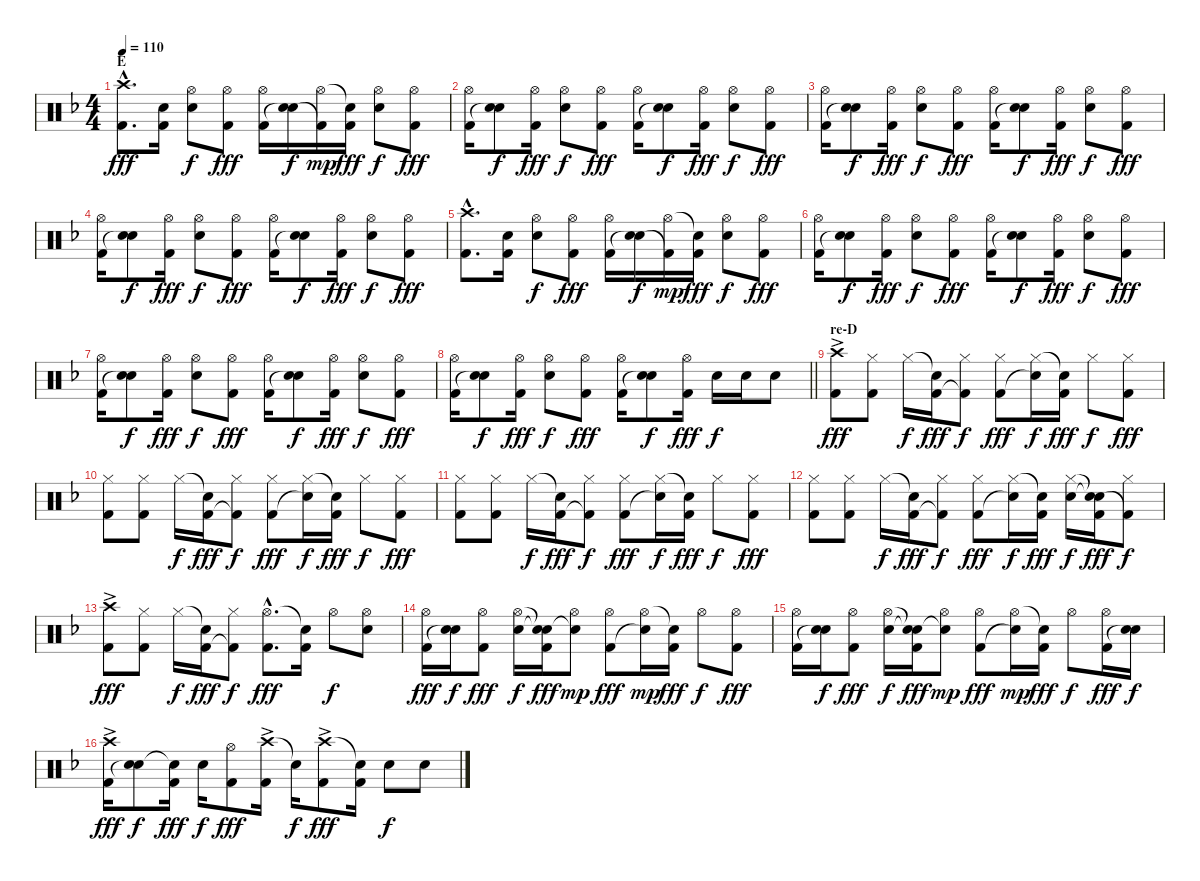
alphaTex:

\track "" {instrument percussion}
\staff {score}
\articulation defaults
\ts (4 4)
\section ("" "E")
\tempo 110
\clef neutral
\ks dminor
("Crash high (hit)"{hac} "Kick (hit) 2"{hac}).8{d dy fff} ("Electric Snare (hit)" "Kick (hit) 2").16 ("Hi-Hat (open)" "Electric Snare (hit)").8{dy f} ("Hi-Hat (open)" "Kick (hit) 2").8{dy fff} ("Hi-Hat (open)" "Kick (hit) 2").16 ("Electric Snare (hit)" "Snare (hit)"{t}).16{dy f} ("Hi-Hat (open)" "Kick (hit) 2"{t}).16{dy mp} ("Snare (hit)"{t} "Kick (hit) 2").16{dy fff} ("Hi-Hat (open)" "Electric Snare (hit)").8{dy f} ("Hi-Hat (open)" "Kick (hit) 2").8{dy fff} |
("Hi-Hat (open)" "Kick (hit) 2").16 ("Electric Snare (hit)" "Snare (hit)"{t}).8{dy f} ("Hi-Hat (open)" "Kick (hit) 2").16{dy fff} ("Hi-Hat (open)" "Electric Snare (hit)").8{dy f} ("Hi-Hat (open)" "Kick (hit) 2").8{dy fff} ("Hi-Hat (open)" "Kick (hit) 2").16 ("Electric Snare (hit)" "Snare (hit)"{t}).8{dy f} ("Hi-Hat (open)" "Kick (hit) 2").16{dy fff} ("Hi-Hat (open)" "Electric Snare (hit)").8{dy f} ("Hi-Hat (open)" "Kick (hit) 2").8{dy fff} |
("Hi-Hat (open)" "Kick (hit) 2").16 ("Electric Snare (hit)" "Snare (hit)"{t}).8{dy f} ("Hi-Hat (open)" "Kick (hit) 2").16{dy fff} ("Hi-Hat (open)" "Electric Snare (hit)").8{dy f} ("Hi-Hat (open)" "Kick (hit) 2").8{dy fff} ("Hi-Hat (open)" "Kick (hit) 2").16 ("Electric Snare (hit)" "Snare (hit)"{t}).8{dy f} ("Hi-Hat (open)" "Kick (hit) 2").16{dy fff} ("Hi-Hat (open)" "Electric Snare (hit)").8{dy f} ("Hi-Hat (open)" "Kick (hit) 2").8{dy fff} |
("Hi-Hat (open)" "Kick (hit) 2").16 ("Electric Snare (hit)" "Snare (hit)"{t}).8{dy f} ("Hi-Hat (open)" "Kick (hit) 2").16{dy fff} ("Hi-Hat (open)" "Electric Snare (hit)").8{dy f} ("Hi-Hat (open)" "Kick (hit) 2").8{dy fff} ("Hi-Hat (open)" "Kick (hit) 2").16 ("Electric Snare (hit)" "Snare (hit)"{t}).8{dy f} ("Hi-Hat (open)" "Kick (hit) 2").16{dy fff} ("Hi-Hat (open)" "Electric Snare (hit)").8{dy f} ("Hi-Hat (open)" "Kick (hit) 2").8{dy fff} |
("Crash high (hit)"{hac} "Kick (hit) 2"{hac}).8{d} ("Electric Snare (hit)" "Kick (hit) 2").16 ("Hi-Hat (open)" "Electric Snare (hit)").8{dy f} ("Hi-Hat (open)" "Kick (hit) 2").8{dy fff} ("Hi-Hat (open)" "Kick (hit) 2").16 ("Electric Snare (hit)" "Snare (hit)"{t}).16{dy f} ("Hi-Hat (open)" "Kick (hit) 2"{t}).16{dy mp} ("Snare (hit)"{t} "Kick (hit) 2").16{dy fff} ("Hi-Hat (open)" "Electric Snare (hit)").8{dy f} ("Hi-Hat (open)" "Kick (hit) 2").8{dy fff} |
("Hi-Hat (open)" "Kick (hit) 2").16 ("Electric Snare (hit)" "Snare (hit)"{t}).8{dy f} ("Hi-Hat (open)" "Kick (hit) 2").16{dy fff} ("Hi-Hat (open)" "Electric Snare (hit)").8{dy f} ("Hi-Hat (open)" "Kick (hit) 2").8{dy fff} ("Hi-Hat (open)" "Kick (hit) 2").16 ("Electric Snare (hit)" "Snare (hit)"{t}).8{dy f} ("Hi-Hat (open)" "Kick (hit) 2").16{dy fff} ("Hi-Hat (open)" "Electric Snare (hit)").8{dy f} ("Hi-Hat (open)" "Kick (hit) 2").8{dy fff} |
("Hi-Hat (open)" "Kick (hit) 2").16 ("Electric Snare (hit)" "Snare (hit)"{t}).8{dy f} ("Hi-Hat (open)" "Kick (hit) 2").16{dy fff} ("Hi-Hat (open)" "Electric Snare (hit)").8{dy f} ("Hi-Hat (open)" "Kick (hit) 2").8{dy fff} ("Hi-Hat (open)" "Kick (hit) 2").16 ("Electric Snare (hit)" "Snare (hit)"{t}).8{dy f} ("Hi-Hat (open)" "Kick (hit) 2").16{dy fff} ("Hi-Hat (open)" "Electric Snare (hit)").8{dy f} ("Hi-Hat (open)" "Kick (hit) 2").8{dy fff} |
\barLineRight lightlight
("Hi-Hat (open)" "Kick (hit) 2").16 ("Electric Snare (hit)" "Snare (hit)"{t}).8{dy f} ("Hi-Hat (open)" "Kick (hit) 2").16{dy fff} ("Hi-Hat (open)" "Electric Snare (hit)").8{dy f} ("Hi-Hat (open)" "Kick (hit) 2").8{dy fff} ("Hi-Hat (open)" "Kick (hit) 2").16 ("Electric Snare (hit)" "Snare (hit)"{t}).8{dy f} ("Hi-Hat (open)" "Kick (hit) 2").16{dy fff} "Electric Snare (hit)".16{dy f} "Electric Snare (hit)".16 "Electric Snare (hit)".8 |
\section ("" "re-D")
("Crash high (hit)"{ac} "Kick (hit) 2").8{dy fff} ("Hi-Hat (closed)" "Kick (hit) 2").8 "Hi-Hat (closed)".16{dy f} ("Snare (hit)"{t} "Kick (hit) 2").16{dy fff} ("Hi-Hat (closed)" "Kick (hit) 2"{t}).8{dy f} ("Hi-Hat (closed)" "Kick (hit) 2").8{dy fff} ("Hi-Hat (closed)" "Snare (hit)"{t}).16{dy f} ("Snare (hit)"{t} "Kick (hit) 2").16{dy fff} "Hi-Hat (closed)".8{dy f} ("Hi-Hat (closed)" "Kick (hit) 2").8{dy fff} |
("Hi-Hat (closed)" "Kick (hit) 2").8 ("Hi-Hat (closed)" "Kick (hit) 2").8 "Hi-Hat (closed)".16{dy f} ("Snare (hit)"{t} "Kick (hit) 2").16{dy fff} ("Hi-Hat (closed)" "Kick (hit) 2"{t}).8{dy f} ("Hi-Hat (closed)" "Kick (hit) 2").8{dy fff} ("Hi-Hat (closed)" "Snare (hit)"{t}).16{dy f} ("Snare (hit)"{t} "Kick (hit) 2").16{dy fff} "Hi-Hat (closed)".8{dy f} ("Hi-Hat (closed)" "Kick (hit) 2").8{dy fff} |
("Hi-Hat (closed)" "Kick (hit) 2").8 ("Hi-Hat (closed)" "Kick (hit) 2").8 "Hi-Hat (closed)".16{dy f} ("Snare (hit)"{t} "Kick (hit) 2").16{dy fff} ("Hi-Hat (closed)" "Kick (hit) 2"{t}).8{dy f} ("Hi-Hat (closed)" "Kick (hit) 2").8{dy fff} ("Hi-Hat (closed)" "Snare (hit)"{t}).16{dy f} ("Snare (hit)"{t} "Kick (hit) 2").16{dy fff} "Hi-Hat (closed)".8{dy f} ("Hi-Hat (closed)" "Kick (hit) 2").8{dy fff} |
("Hi-Hat (closed)" "Kick (hit) 2").8 ("Hi-Hat (closed)" "Kick (hit) 2").8 "Hi-Hat (closed)".16{dy f} ("Snare (hit)"{t} "Kick (hit) 2").16{dy fff} ("Hi-Hat (closed)" "Kick (hit) 2"{t}).8{dy f} ("Hi-Hat (closed)" "Kick (hit) 2").8{dy fff} ("Hi-Hat (closed)" "Snare (hit)"{t}).16{dy f} ("Snare (hit)"{t} "Kick (hit) 2").16{dy fff} ("Hi-Hat (closed)" "Electric Snare (hit)").16{dy f} ("Snare (hit)"{t} "Snare (hit)"{t} "Kick (hit) 2").16{dy fff} ("Hi-Hat (closed)" "Kick (hit) 2"{t}).8{dy f} |
("Crash high (hit)"{ac} "Kick (hit) 2").8{dy fff} ("Hi-Hat (closed)" "Kick (hit) 2").8 "Hi-Hat (closed)".16{dy f} ("Snare (hit)"{t} "Kick (hit) 2").16{dy fff} ("Hi-Hat (closed)" "Kick (hit) 2"{t}).8{dy f} ("Hi-Hat (open)"{hac} "Kick (hit) 2"{hac}).8{d dy fff} ("Snare (hit)"{t} "Kick (hit) 2").16 "Hi-Hat (open)".8{dy f} ("Hi-Hat (open)" "Electric Snare (hit)").8 |
("Hi-Hat (open)" "Kick (hit) 2").16{dy fff} ("Electric Snare (hit)" "Snare (hit)"{t}).16{dy f} ("Hi-Hat (open)" "Kick (hit) 2").8{dy fff} ("Hi-Hat (open)" "Electric Snare (hit)").16{dy f} ("Snare (hit)"{t} "Snare (hit)"{t} "Kick (hit) 2").16{dy fff} ("Hi-Hat (open)" "Snare (hit)"{t}).8{dy mp} ("Hi-Hat (open)" "Kick (hit) 2").8{dy fff} ("Hi-Hat (open)" "Snare (hit)"{t}).16{dy mp} ("Snare (hit)"{t} "Kick (hit) 2").16{dy fff} "Hi-Hat (open)".8{dy f} ("Hi-Hat (open)" "Kick (hit) 2").8{dy fff} |
("Hi-Hat (open)" "Kick (hit) 2").16 ("Electric Snare (hit)" "Snare (hit)"{t}).16{dy f} ("Hi-Hat (open)" "Kick (hit) 2").8{dy fff} ("Hi-Hat (open)" "Electric Snare (hit)").16{dy f} ("Snare (hit)"{t} "Snare (hit)"{t} "Kick (hit) 2").16{dy fff} ("Hi-Hat (open)" "Snare (hit)"{t}).8{dy mp} ("Hi-Hat (open)" "Kick (hit) 2").8{dy fff} ("Hi-Hat (open)" "Snare (hit)"{t}).16{dy mp} ("Snare (hit)"{t} "Kick (hit) 2").16{dy fff} "Hi-Hat (open)".8{dy f} ("Hi-Hat (open)" "Kick (hit) 2").16{dy fff} ("Electric Snare (hit)" "Snare (hit)"{t}).16{dy f} |
("Crash high (hit)"{ac} "Kick (hit) 2").16{dy fff} ("Electric Snare (hit)" "Snare (hit)"{t}).8{dy f} ("Snare (hit)"{t} "Kick (hit) 2").16{dy fff} "Electric Snare (hit)".16{dy f} ("Hi-Hat (open)" "Kick (hit) 2").8{dy fff} ("Crash high (hit)"{ac} "Kick (hit) 2").16 "Snare (hit)"{t}.16{dy f} ("Crash high (hit)"{ac} "Kick (hit) 2").8{dy fff} ("Snare (hit)"{t} "Kick (hit) 2").16 "Electric Snare (hit)".8{dy f} "Electric Snare (hit)".8
